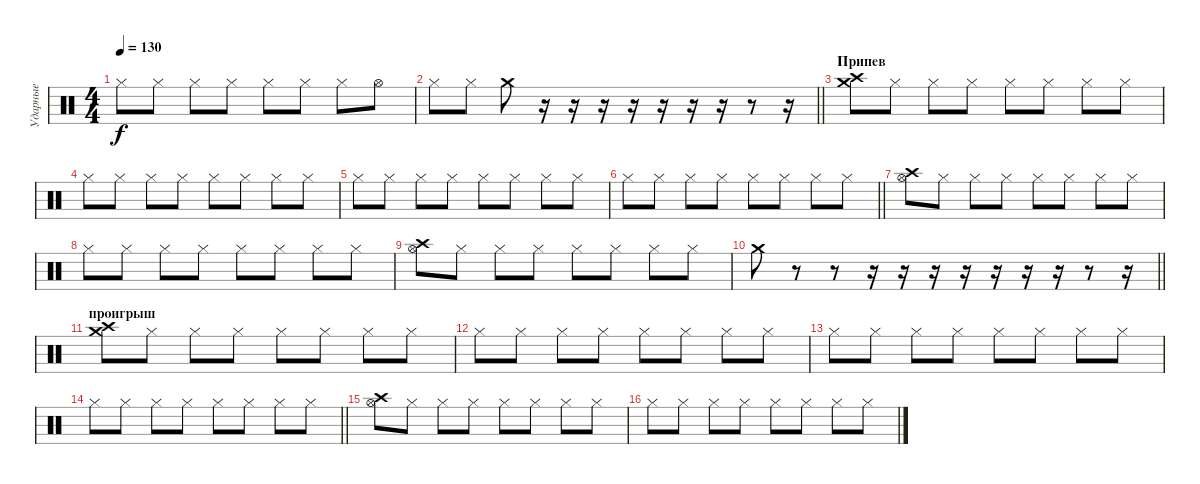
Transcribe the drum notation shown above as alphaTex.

\track ("Ударные" "Ударные") {instrument percussion}
\staff {score}
\articulation defaults
\ts (4 4)
\tempo 130
\clef neutral
\ks c "Hi-Hat (closed)".8{dy f} "Hi-Hat (closed)".8 "Hi-Hat (closed)".8 "Hi-Hat (closed)".8 "Hi-Hat (closed)".8 "Hi-Hat (closed)".8 "Hi-Hat (closed)".8 "Hi-Hat (open)".8
|
\barLineRight lightlight "Hi-Hat (closed)".8 "Hi-Hat (closed)".8 "Crash medium (hit)".8
r.16 r.16 r.16 r.16 r.16 r.16 r.16 r.8 r.16 |
\section ("" "Припев")
("Crash high (hit)" "Crash medium (hit)").8 "Hi-Hat (closed)".8 "Hi-Hat (closed)".8 "Hi-Hat (closed)".8 "Hi-Hat (closed)".8 "Hi-Hat (closed)".8 "Hi-Hat (closed)".8 "Hi-Hat (closed)".8 |
"Hi-Hat (closed)".8 "Hi-Hat (closed)".8 "Hi-Hat (closed)".8 "Hi-Hat (closed)".8 "Hi-Hat (closed)".8 "Hi-Hat (closed)".8 "Hi-Hat (closed)".8 "Hi-Hat (closed)".8 |
"Hi-Hat (closed)".8 "Hi-Hat (closed)".8 "Hi-Hat (closed)".8 "Hi-Hat (closed)".8 "Hi-Hat (closed)".8 "Hi-Hat (closed)".8 "Hi-Hat (closed)".8 "Hi-Hat (closed)".8 |
\barLineRight lightlight "Hi-Hat (closed)".8 "Hi-Hat (closed)".8 "Hi-Hat (closed)".8 "Hi-Hat (closed)".8 "Hi-Hat (closed)".8 "Hi-Hat (closed)".8 "Hi-Hat (closed)".8 "Hi-Hat (closed)".8
|
("Hi-Hat (open)" "Crash high (hit)").8 "Hi-Hat (closed)".8 "Hi-Hat (closed)".8 "Hi-Hat (closed)".8 "Hi-Hat (closed)".8 "Hi-Hat (closed)".8 "Hi-Hat (closed)".8 "Hi-Hat (closed)".8 |
"Hi-Hat (closed)".8 "Hi-Hat (closed)".8 "Hi-Hat (closed)".8 "Hi-Hat (closed)".8 "Hi-Hat (closed)".8 "Hi-Hat (closed)".8 "Hi-Hat (closed)".8 "Hi-Hat (closed)".8 |
("Hi-Hat (open)" "Crash high (hit)").8 "Hi-Hat (closed)".8 "Hi-Hat (closed)".8 "Hi-Hat (closed)".8 "Hi-Hat (closed)".8 "Hi-Hat (closed)".8 "Hi-Hat (closed)".8 "Hi-Hat (closed)".8 |
\barLineRight lightlight "Crash medium (hit)".8
r.8 r.8 r.16 r.16 r.16 r.16 r.16 r.16 r.16 r.8 r.16 |
\section ("" "проигрыш")
("Crash high (hit)" "Crash medium (hit)").8 "Hi-Hat (closed)".8 "Hi-Hat (closed)".8 "Hi-Hat (closed)".8 "Hi-Hat (closed)".8 "Hi-Hat (closed)".8 "Hi-Hat (closed)".8 "Hi-Hat (closed)".8 |
"Hi-Hat (closed)".8 "Hi-Hat (closed)".8 "Hi-Hat (closed)".8 "Hi-Hat (closed)".8 "Hi-Hat (closed)".8 "Hi-Hat (closed)".8 "Hi-Hat (closed)".8 "Hi-Hat (closed)".8 |
"Hi-Hat (closed)".8 "Hi-Hat (closed)".8 "Hi-Hat (closed)".8 "Hi-Hat (closed)".8 "Hi-Hat (closed)".8 "Hi-Hat (closed)".8 "Hi-Hat (closed)".8 "Hi-Hat (closed)".8 |
\barLineRight lightlight "Hi-Hat (closed)".8 "Hi-Hat (closed)".8 "Hi-Hat (closed)".8 "Hi-Hat (closed)".8 "Hi-Hat (closed)".8 "Hi-Hat (closed)".8 "Hi-Hat (closed)".8 "Hi-Hat (closed)".8
|
("Hi-Hat (open)" "Crash high (hit)").8 "Hi-Hat (closed)".8 "Hi-Hat (closed)".8 "Hi-Hat (closed)".8 "Hi-Hat (closed)".8 "Hi-Hat (closed)".8 "Hi-Hat (closed)".8 "Hi-Hat (closed)".8 |
"Hi-Hat (closed)".8 "Hi-Hat (closed)".8 "Hi-Hat (closed)".8 "Hi-Hat (closed)".8 "Hi-Hat (closed)".8 "Hi-Hat (closed)".8 "Hi-Hat (closed)".8 "Hi-Hat (closed)".8
